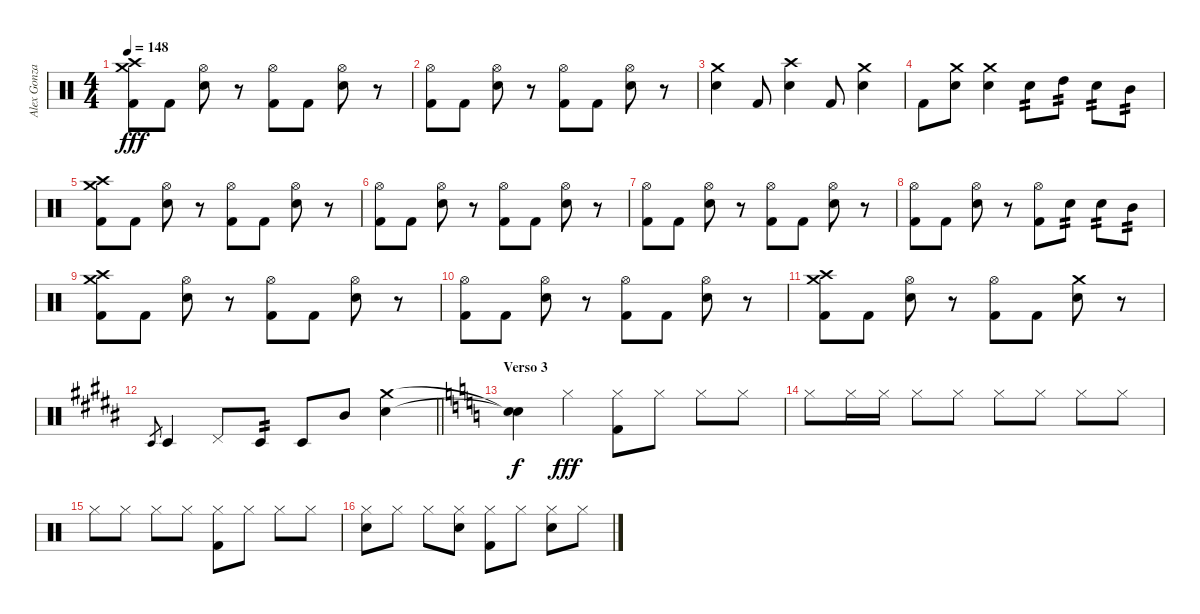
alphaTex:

\track ("Alex Gonzalez" "Alex Gonza") {instrument percussion}
\staff {score}
\articulation defaults
\ts (4 4)
\tempo 148
\clef neutral
\ks c
("Crash medium (hit)" "Crash high (hit)" "Kick (hit) 2").8{dy fff} "Kick (hit) 2".8 ("Hi-Hat (open)" "Snare (hit) 2").8 r.8 ("Hi-Hat (open)" "Kick (hit) 2").8 "Kick (hit) 2".8 ("Hi-Hat (open)" "Snare (hit) 2").8 r.8 |
("Hi-Hat (open)" "Kick (hit) 2").8 "Kick (hit) 2".8 ("Hi-Hat (open)" "Snare (hit) 2").8 r.8 ("Hi-Hat (open)" "Kick (hit) 2").8 "Kick (hit) 2".8 ("Hi-Hat (open)" "Snare (hit) 2").8 r.8 |
("Crash medium (hit)" "Snare (hit) 2").4 "Kick (hit) 2".8 ("Crash high (hit)" "Snare (hit) 2").4 "Kick (hit) 2".8 ("Crash medium (hit)" "Snare (hit) 2").4 |
"Kick (hit) 2".8 ("Crash medium (hit)" "Snare (hit) 2").8 ("Crash medium (hit)" "Snare (hit) 2").4 "Snare (hit) 2".8{tp 2} "High Tom (hit)".8{tp 2} "Snare (hit) 2".8{tp 2} "Mid Tom (hit)".8{tp 2} |
("Crash medium (hit)" "Crash high (hit)" "Kick (hit) 2").8 "Kick (hit) 2".8 ("Hi-Hat (open)" "Snare (hit) 2").8 r.8 ("Hi-Hat (open)" "Kick (hit) 2").8 "Kick (hit) 2".8 ("Hi-Hat (open)" "Snare (hit) 2").8 r.8 |
("Hi-Hat (open)" "Kick (hit) 2").8 "Kick (hit) 2".8 ("Hi-Hat (open)" "Snare (hit) 2").8 r.8 ("Hi-Hat (open)" "Kick (hit) 2").8 "Kick (hit) 2".8 ("Hi-Hat (open)" "Snare (hit) 2").8 r.8 |
("Hi-Hat (open)" "Kick (hit) 2").8 "Kick (hit) 2".8 ("Hi-Hat (open)" "Snare (hit) 2").8 r.8 ("Hi-Hat (open)" "Kick (hit) 2").8 "Kick (hit) 2".8 ("Hi-Hat (open)" "Snare (hit) 2").8 r.8 |
("Hi-Hat (open)" "Kick (hit) 2").8 "Kick (hit) 2".8 ("Hi-Hat (open)" "Snare (hit) 2").8 r.8 ("Hi-Hat (open)" "Kick (hit) 2").8 "Snare (hit) 2".8{tp 2} "Snare (hit) 2".8{tp 2} "Mid Tom (hit)".8{tp 2} |
("Crash medium (hit)" "Crash high (hit)" "Kick (hit) 2").8 "Kick (hit) 2".8 ("Hi-Hat (open)" "Snare (hit) 2").8 r.8 ("Hi-Hat (open)" "Kick (hit) 2").8 "Kick (hit) 2".8 ("Hi-Hat (open)" "Snare (hit) 2").8 r.8 |
("Hi-Hat (open)" "Kick (hit) 2").8 "Kick (hit) 2".8 ("Hi-Hat (open)" "Snare (hit) 2").8 r.8 ("Hi-Hat (open)" "Kick (hit) 2").8 "Kick (hit) 2".8 ("Hi-Hat (open)" "Snare (hit) 2").8 r.8 |
("Crash medium (hit)" "Crash high (hit)" "Kick (hit) 2").8 "Kick (hit) 2".8 ("Hi-Hat (open)" "Snare (hit) 2").8 r.8 ("Hi-Hat (open)" "Kick (hit) 2").8 "Kick (hit) 2".8 ("Crash medium (hit)" "Snare (hit) 2").8 r.8 |
\barLineRight lightlight
\ks b "Timbale low (hit)".8{gr} "Timbale low (hit)".4 "Pedal Hi-Hat (hit)".8 "Timbale low (hit)".8{tp 2} "Timbale low (hit)".8 "Mid Tom (hit)".8
("Crash medium (hit)" "Snare (hit) 2").4 |
\section ("" "Verso 3")
\ks c
("Snare (hit)"{t} "Snare (hit)"{t}).4{dy f} "Hi-Hat (closed)".4{dy fff} ("Hi-Hat (closed)" "Kick (hit) 2").8 "Hi-Hat (closed)".8 "Hi-Hat (closed)".8 "Hi-Hat (closed)".8 |
"Hi-Hat (closed)".8 "Hi-Hat (closed)".16 "Hi-Hat (closed)".16 "Hi-Hat (closed)".8 "Hi-Hat (closed)".8 "Hi-Hat (closed)".8 "Hi-Hat (closed)".8 "Hi-Hat (closed)".8 "Hi-Hat (closed)".8 |
"Hi-Hat (closed)".8 "Hi-Hat (closed)".8 "Hi-Hat (closed)".8 "Hi-Hat (closed)".8 ("Hi-Hat (closed)" "Kick (hit) 2").8 "Hi-Hat (closed)".8 "Hi-Hat (closed)".8 "Hi-Hat (closed)".8 |
("Hi-Hat (closed)" "Snare (hit) 2").8 "Hi-Hat (closed)".8 "Hi-Hat (closed)".8 ("Hi-Hat (closed)" "Snare (hit) 2").8 ("Hi-Hat (closed)" "Kick (hit) 2").8 "Hi-Hat (closed)".8 ("Hi-Hat (closed)" "Snare (hit) 2").8 "Hi-Hat (closed)".8
